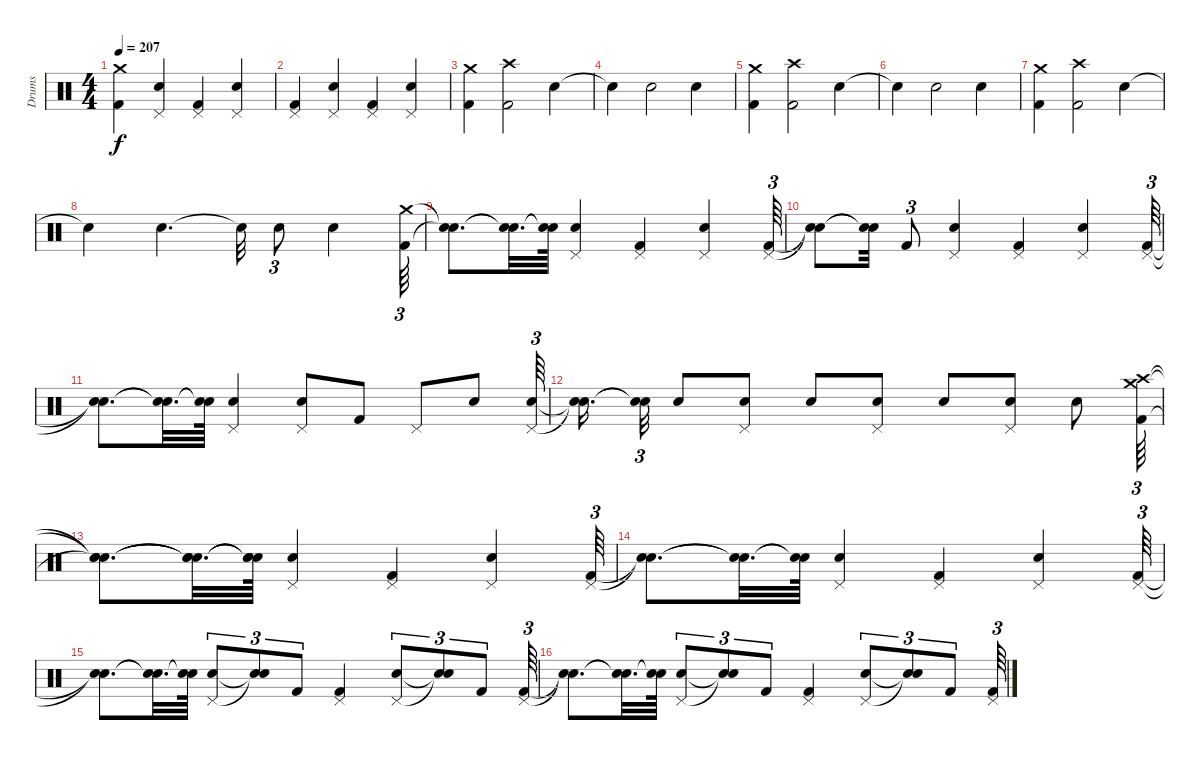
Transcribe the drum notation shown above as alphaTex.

\track ("Drums" "Drums") {instrument percussion}
\staff {score}
\articulation defaults
\ts (4 4)
\tempo 207
\clef neutral
\ks c
("Kick (hit) 2" "Crash medium (hit)").4{dy f} ("Pedal Hi-Hat (hit)" "Snare (hit) 2").4 ("Pedal Hi-Hat (hit)" "Kick (hit) 2").4 ("Pedal Hi-Hat (hit)" "Snare (hit) 2").4 |
("Pedal Hi-Hat (hit)" "Kick (hit) 2").4 ("Pedal Hi-Hat (hit)" "Snare (hit) 2").4 ("Pedal Hi-Hat (hit)" "Kick (hit) 2").4 ("Pedal Hi-Hat (hit)" "Snare (hit) 2").4 |
("Kick (hit) 2" "Crash medium (hit)").4 ("Kick (hit) 2" "Crash high (hit)").2 "Snare (hit) 2".4 |
"Snare (hit)"{t}.4 "Snare (hit) 2".2 "Snare (hit) 2".4 |
("Kick (hit) 2" "Crash medium (hit)").4 ("Kick (hit) 2" "Crash high (hit)").2 "Snare (hit) 2".4 |
"Snare (hit)"{t}.4 "Snare (hit) 2".2 "Snare (hit) 2".4 |
("Kick (hit) 2" "Crash medium (hit)").4 ("Kick (hit) 2" "Crash high (hit)").2 "Snare (hit) 2".4 |
"Snare (hit)"{t}.4 "Snare (hit) 2".4{d} "Snare (hit)"{t}.32 "Snare (hit) 2".8{tu (3 2)} "Snare (hit) 2".4 ("Crash medium (hit)" "Kick (hit) 2").64{tu (3 2)} |
("Snare (hit)"{t} "Snare (hit)"{t}).8{d} ("Snare (hit)"{t} "Snare (hit)"{t}).32{d} ("Snare (hit)"{t} "Snare (hit)"{t}).64 ("Pedal Hi-Hat (hit)" "Snare (hit) 2").4 ("Pedal Hi-Hat (hit)" "Kick (hit) 2").4 ("Pedal Hi-Hat (hit)" "Snare (hit) 2").4 ("Pedal Hi-Hat (hit)" "Kick (hit) 2").64{tu (3 2)} |
("Snare (hit)"{t} "Snare (hit)"{t}).8 ("Snare (hit)"{t} "Snare (hit)"{t}).32 "Kick (hit) 2".8{tu (3 2)} ("Pedal Hi-Hat (hit)" "Snare (hit) 2").4 ("Pedal Hi-Hat (hit)" "Kick (hit) 2").4 ("Pedal Hi-Hat (hit)" "Snare (hit) 2").4 ("Pedal Hi-Hat (hit)" "Kick (hit) 2").64{tu (3 2)} |
("Snare (hit)"{t} "Snare (hit)"{t}).8{d} ("Snare (hit)"{t} "Snare (hit)"{t}).32{d} ("Snare (hit)"{t} "Snare (hit)"{t}).64 ("Pedal Hi-Hat (hit)" "Snare (hit) 2").4 ("Pedal Hi-Hat (hit)" "Snare (hit) 2").8 "Kick (hit) 2".8 "Pedal Hi-Hat (hit)".8 "Snare (hit) 2".8 ("Pedal Hi-Hat (hit)" "Snare (hit) 2").64{tu (3 2)} |
("Snare (hit)"{t} "Snare (hit)"{t}).16{d} ("Snare (hit)"{t} "Snare (hit)"{t}).32{tu (3 2)} "Snare (hit) 2".8 ("Pedal Hi-Hat (hit)" "Snare (hit) 2").8 "Snare (hit) 2".8 ("Pedal Hi-Hat (hit)" "Snare (hit) 2").8 "Snare (hit) 2".8 ("Pedal Hi-Hat (hit)" "Snare (hit) 2").8 "Snare (hit) 2".8 ("Kick (hit) 2" "Crash high (hit)" "Crash medium (hit)").64{tu (3 2)} |
("Snare (hit)"{t} "Snare (hit)"{t} "Snare (hit)"{t}).8{d} ("Snare (hit)"{t} "Snare (hit)"{t} "Snare (hit)"{t}).32{d} ("Snare (hit)"{t} "Snare (hit)"{t} "Snare (hit)"{t}).64 ("Pedal Hi-Hat (hit)" "Snare (hit) 2").4 ("Pedal Hi-Hat (hit)" "Kick (hit) 2").4 ("Pedal Hi-Hat (hit)" "Snare (hit) 2").4 ("Pedal Hi-Hat (hit)" "Kick (hit) 2").64{tu (3 2)} |
("Snare (hit)"{t} "Snare (hit)"{t}).8{d} ("Snare (hit)"{t} "Snare (hit)"{t}).32{d} ("Snare (hit)"{t} "Snare (hit)"{t}).64 ("Pedal Hi-Hat (hit)" "Snare (hit) 2").4 ("Pedal Hi-Hat (hit)" "Kick (hit) 2").4 ("Pedal Hi-Hat (hit)" "Snare (hit) 2").4 ("Pedal Hi-Hat (hit)" "Kick (hit) 2").64{tu (3 2)} |
("Snare (hit)"{t} "Snare (hit)"{t}).8{d} ("Snare (hit)"{t} "Snare (hit)"{t}).32{d} ("Snare (hit)"{t} "Snare (hit)"{t}).64 ("Pedal Hi-Hat (hit)" "Snare (hit) 2").8{tu (3 2)} ("Snare (hit)"{t} "Snare (hit)"{t}).8{tu (3 2)} "Kick (hit) 2".8{tu (3 2)} ("Pedal Hi-Hat (hit)" "Kick (hit) 2").4 ("Pedal Hi-Hat (hit)" "Snare (hit) 2").8{tu (3 2)} ("Snare (hit)"{t} "Snare (hit)"{t}).8{tu (3 2)} "Kick (hit) 2".8{tu (3 2)} ("Pedal Hi-Hat (hit)" "Kick (hit) 2").64{tu (3 2)} |
("Snare (hit)"{t} "Snare (hit)"{t}).8{d} ("Snare (hit)"{t} "Snare (hit)"{t}).32{d} ("Snare (hit)"{t} "Snare (hit)"{t}).64 ("Pedal Hi-Hat (hit)" "Snare (hit) 2").8{tu (3 2)} ("Snare (hit)"{t} "Snare (hit)"{t}).8{tu (3 2)} "Kick (hit) 2".8{tu (3 2)} ("Pedal Hi-Hat (hit)" "Kick (hit) 2").4 ("Pedal Hi-Hat (hit)" "Snare (hit) 2").8{tu (3 2)} ("Snare (hit)"{t} "Snare (hit)"{t}).8{tu (3 2)} "Kick (hit) 2".8{tu (3 2)} ("Pedal Hi-Hat (hit)" "Kick (hit) 2").64{tu (3 2)}
